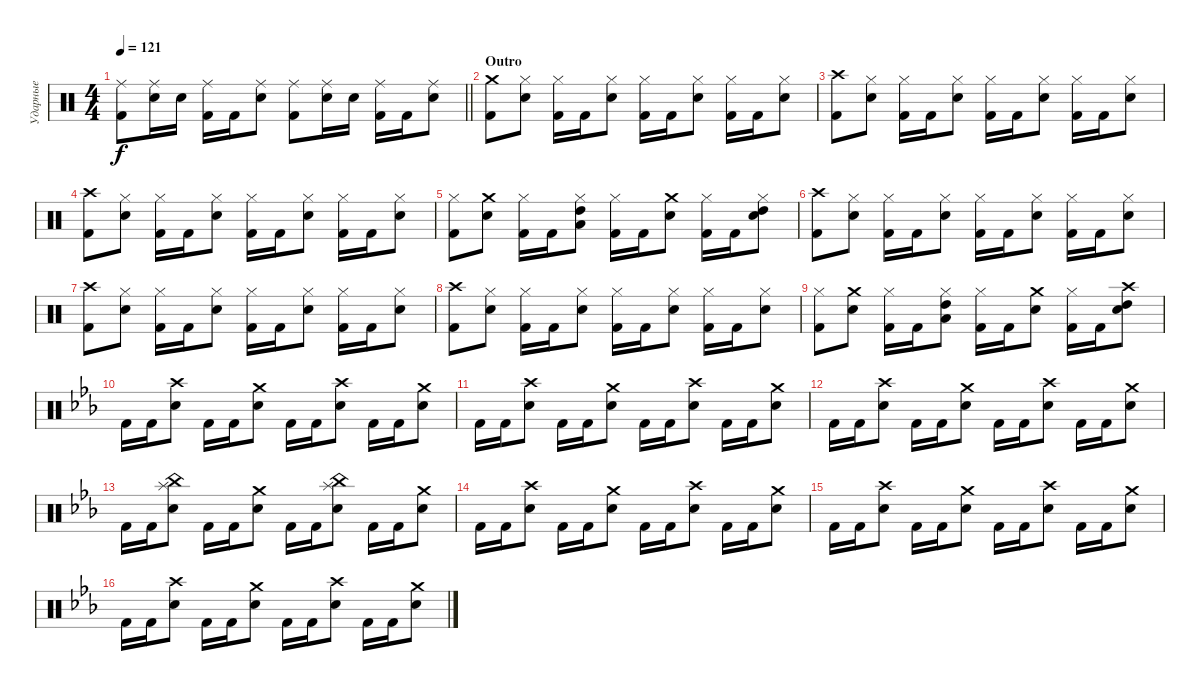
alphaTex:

\track ("Ударные" "Ударные") {instrument percussion}
\staff {score}
\articulation defaults
\ts (4 4)
\tempo 121
\clef neutral
\barLineRight lightlight
\ks c
("Ride (middle)" "Kick (hit) 2").8{dy f} ("Ride (middle)" "Electric Snare (hit)").16 "Electric Snare (hit)".16 ("Ride (middle)" "Kick (hit) 2").16 "Kick (hit) 2".16 ("Ride (middle)" "Electric Snare (hit)").8 ("Ride (middle)" "Kick (hit) 2").8 ("Ride (middle)" "Electric Snare (hit)").16 "Electric Snare (hit)".16 ("Ride (middle)" "Kick (hit) 2").16 "Kick (hit) 2".16 ("Ride (middle)" "Electric Snare (hit)").8 |
\section ("" "Outro")
("Crash medium (hit)" "Kick (hit) 2").8 ("Hi-Hat (closed)" "Electric Snare (hit)").8 ("Hi-Hat (closed)" "Kick (hit) 2").16 "Kick (hit) 2".16 ("Hi-Hat (closed)" "Electric Snare (hit)").8 ("Hi-Hat (closed)" "Kick (hit) 2").16 "Kick (hit) 2".16 ("Hi-Hat (closed)" "Electric Snare (hit)").8 ("Hi-Hat (closed)" "Kick (hit) 2").16 "Kick (hit) 2".16 ("Hi-Hat (closed)" "Electric Snare (hit)").8 |
("Crash high (hit)" "Kick (hit) 2").8 ("Hi-Hat (closed)" "Electric Snare (hit)").8 ("Hi-Hat (closed)" "Kick (hit) 2").16 "Kick (hit) 2".16 ("Hi-Hat (closed)" "Electric Snare (hit)").8 ("Hi-Hat (closed)" "Kick (hit) 2").16 "Kick (hit) 2".16 ("Hi-Hat (closed)" "Electric Snare (hit)").8 ("Hi-Hat (closed)" "Kick (hit) 2").16 "Kick (hit) 2".16 ("Hi-Hat (closed)" "Electric Snare (hit)").8 |
("Crash high (hit)" "Kick (hit) 2").8 ("Hi-Hat (closed)" "Electric Snare (hit)").8 ("Hi-Hat (closed)" "Kick (hit) 2").16 "Kick (hit) 2".16 ("Hi-Hat (closed)" "Electric Snare (hit)").8 ("Hi-Hat (closed)" "Kick (hit) 2").16 "Kick (hit) 2".16 ("Hi-Hat (closed)" "Electric Snare (hit)").8 ("Hi-Hat (closed)" "Kick (hit) 2").16 "Kick (hit) 2".16 ("Hi-Hat (closed)" "Electric Snare (hit)").8 |
("Hi-Hat (closed)" "Kick (hit) 2").8 ("Crash medium (hit)" "Electric Snare (hit)").8 ("Hi-Hat (closed)" "Kick (hit) 2").16 "Kick (hit) 2".16 ("Hi-Hat (closed)" "High Tom (hit)" "Low Tom (hit)").8 ("Hi-Hat (closed)" "Kick (hit) 2").16 "Kick (hit) 2".16 ("Crash medium (hit)" "Electric Snare (hit)").8 ("Hi-Hat (closed)" "Kick (hit) 2").16 "Kick (hit) 2".16 ("Hi-Hat (closed)" "Electric Snare (hit)" "High Tom (hit)").8 |
("Crash high (hit)" "Kick (hit) 2").8 ("Hi-Hat (closed)" "Electric Snare (hit)").8 ("Hi-Hat (closed)" "Kick (hit) 2").16 "Kick (hit) 2".16 ("Hi-Hat (closed)" "Electric Snare (hit)").8 ("Hi-Hat (closed)" "Kick (hit) 2").16 "Kick (hit) 2".16 ("Hi-Hat (closed)" "Electric Snare (hit)").8 ("Hi-Hat (closed)" "Kick (hit) 2").16 "Kick (hit) 2".16 ("Hi-Hat (closed)" "Electric Snare (hit)").8 |
("Crash high (hit)" "Kick (hit) 2").8 ("Hi-Hat (closed)" "Electric Snare (hit)").8 ("Hi-Hat (closed)" "Kick (hit) 2").16 "Kick (hit) 2".16 ("Hi-Hat (closed)" "Electric Snare (hit)").8 ("Hi-Hat (closed)" "Kick (hit) 2").16 "Kick (hit) 2".16 ("Hi-Hat (closed)" "Electric Snare (hit)").8 ("Hi-Hat (closed)" "Kick (hit) 2").16 "Kick (hit) 2".16 ("Hi-Hat (closed)" "Electric Snare (hit)").8 |
("Crash high (hit)" "Kick (hit) 2").8 ("Hi-Hat (closed)" "Electric Snare (hit)").8 ("Hi-Hat (closed)" "Kick (hit) 2").16 "Kick (hit) 2".16 ("Hi-Hat (closed)" "Electric Snare (hit)").8 ("Hi-Hat (closed)" "Kick (hit) 2").16 "Kick (hit) 2".16 ("Hi-Hat (closed)" "Electric Snare (hit)").8 ("Hi-Hat (closed)" "Kick (hit) 2").16 "Kick (hit) 2".16 ("Hi-Hat (closed)" "Electric Snare (hit)").8 |
("Hi-Hat (closed)" "Kick (hit) 2").8 ("Crash medium (hit)" "Electric Snare (hit)").8 ("Hi-Hat (closed)" "Kick (hit) 2").16 "Kick (hit) 2".16 ("Hi-Hat (closed)" "High Tom (hit)" "Low Tom (hit)").8 ("Hi-Hat (closed)" "Kick (hit) 2").16 "Kick (hit) 2".16 ("Crash medium (hit)" "Electric Snare (hit)").8 ("Hi-Hat (closed)" "Kick (hit) 2").16 "Kick (hit) 2".16 ("Crash high (hit)" "Electric Snare (hit)" "High Tom (hit)").8 |
\ks eb "Kick (hit) 2".16 "Kick (hit) 2".16
("Crash high (hit)" "Electric Snare (hit)").8 "Kick (hit) 2".16 "Kick (hit) 2".16 ("Crash medium (hit)" "Electric Snare (hit)").8 "Kick (hit) 2".16 "Kick (hit) 2".16 ("Crash high (hit)" "Electric Snare (hit)").8 "Kick (hit) 2".16 "Kick (hit) 2".16 ("Crash medium (hit)" "Electric Snare (hit)").8 |
"Kick (hit) 2".16 "Kick (hit) 2".16 ("Crash high (hit)" "Electric Snare (hit)").8 "Kick (hit) 2".16 "Kick (hit) 2".16 ("Crash medium (hit)" "Electric Snare (hit)").8 "Kick (hit) 2".16 "Kick (hit) 2".16 ("Crash high (hit)" "Electric Snare (hit)").8 "Kick (hit) 2".16 "Kick (hit) 2".16 ("Crash medium (hit)" "Electric Snare (hit)").8 |
"Kick (hit) 2".16 "Kick (hit) 2".16 ("Crash high (hit)" "Electric Snare (hit)").8 "Kick (hit) 2".16 "Kick (hit) 2".16 ("Crash medium (hit)" "Electric Snare (hit)").8 "Kick (hit) 2".16 "Kick (hit) 2".16 ("Crash high (hit)" "Electric Snare (hit)").8 "Kick (hit) 2".16 "Kick (hit) 2".16 ("Crash medium (hit)" "Electric Snare (hit)").8 |
"Kick (hit) 2".16 "Kick (hit) 2".16 ("Splash (hit)" "China (hit)" "Electric Snare (hit)").8 "Kick (hit) 2".16 "Kick (hit) 2".16 ("Crash medium (hit)" "Electric Snare (hit)").8 "Kick (hit) 2".16 "Kick (hit) 2".16 ("Splash (hit)" "China (hit)" "Electric Snare (hit)").8 "Kick (hit) 2".16 "Kick (hit) 2".16 ("Crash medium (hit)" "Electric Snare (hit)").8 |
"Kick (hit) 2".16 "Kick (hit) 2".16 ("Crash high (hit)" "Electric Snare (hit)").8 "Kick (hit) 2".16 "Kick (hit) 2".16 ("Crash medium (hit)" "Electric Snare (hit)").8 "Kick (hit) 2".16 "Kick (hit) 2".16 ("Crash high (hit)" "Electric Snare (hit)").8 "Kick (hit) 2".16 "Kick (hit) 2".16 ("Crash medium (hit)" "Electric Snare (hit)").8 |
"Kick (hit) 2".16 "Kick (hit) 2".16 ("Crash high (hit)" "Electric Snare (hit)").8 "Kick (hit) 2".16 "Kick (hit) 2".16 ("Crash medium (hit)" "Electric Snare (hit)").8 "Kick (hit) 2".16 "Kick (hit) 2".16 ("Crash high (hit)" "Electric Snare (hit)").8 "Kick (hit) 2".16 "Kick (hit) 2".16 ("Crash medium (hit)" "Electric Snare (hit)").8 |
"Kick (hit) 2".16 "Kick (hit) 2".16 ("Crash high (hit)" "Electric Snare (hit)").8 "Kick (hit) 2".16 "Kick (hit) 2".16 ("Crash medium (hit)" "Electric Snare (hit)").8 "Kick (hit) 2".16 "Kick (hit) 2".16 ("Crash high (hit)" "Electric Snare (hit)").8 "Kick (hit) 2".16 "Kick (hit) 2".16 ("Crash medium (hit)" "Electric Snare (hit)").8
